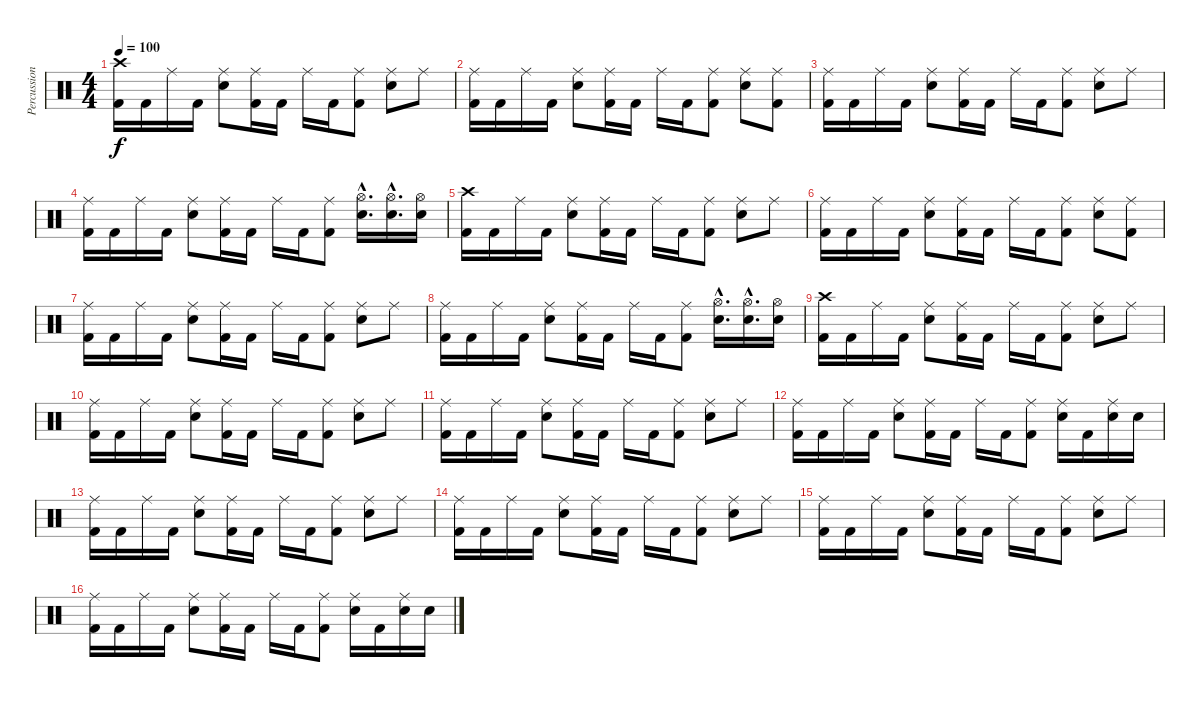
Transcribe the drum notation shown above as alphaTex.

\track ("Percussions" "Percussion") {instrument percussion}
\staff {score}
\articulation defaults
\ts (4 4)
\tempo 100
\clef neutral
\ks c
("Crash high (hit)" "Kick (hit) 2").16{dy f} "Kick (hit) 2".16 "Ride (middle)".16 "Kick (hit) 2".16 ("Ride (middle)" "Electric Snare (hit)").8 ("Ride (middle)" "Kick (hit) 2").16 "Kick (hit) 2".16 "Ride (middle)".16 "Kick (hit) 2".16 ("Ride (middle)" "Kick (hit) 2").8 ("Ride (middle)" "Electric Snare (hit)").8 "Ride (middle)".8 |
("Ride (middle)" "Kick (hit) 2").16 "Kick (hit) 2".16 "Ride (middle)".16 "Kick (hit) 2".16 ("Ride (middle)" "Electric Snare (hit)").8 ("Ride (middle)" "Kick (hit) 2").16 "Kick (hit) 2".16 "Ride (middle)".16 "Kick (hit) 2".16 ("Ride (middle)" "Kick (hit) 2").8 ("Ride (middle)" "Electric Snare (hit)").8 ("Ride (middle)" "Kick (hit) 2").8 |
("Ride (middle)" "Kick (hit) 2").16 "Kick (hit) 2".16 "Ride (middle)".16 "Kick (hit) 2".16 ("Ride (middle)" "Electric Snare (hit)").8 ("Ride (middle)" "Kick (hit) 2").16 "Kick (hit) 2".16 "Ride (middle)".16 "Kick (hit) 2".16 ("Ride (middle)" "Kick (hit) 2").8 ("Ride (middle)" "Electric Snare (hit)").8 "Ride (middle)".8 |
("Ride (middle)" "Kick (hit) 2").16 "Kick (hit) 2".16 "Ride (middle)".16 "Kick (hit) 2".16 ("Ride (middle)" "Electric Snare (hit)").8 ("Ride (middle)" "Kick (hit) 2").16 "Kick (hit) 2".16 "Ride (middle)".16 "Kick (hit) 2".16 ("Ride (middle)" "Kick (hit) 2").8 ("Hi-Hat (open)"{hac} "Electric Snare (hit)"{hac}).16{d} ("Hi-Hat (open)"{hac} "Electric Snare (hit)"{hac}).16{d} ("Hi-Hat (open)" "Electric Snare (hit)").16 |
("Crash high (hit)" "Kick (hit) 2").16 "Kick (hit) 2".16 "Ride (middle)".16 "Kick (hit) 2".16 ("Ride (middle)" "Electric Snare (hit)").8 ("Ride (middle)" "Kick (hit) 2").16 "Kick (hit) 2".16 "Ride (middle)".16 "Kick (hit) 2".16 ("Ride (middle)" "Kick (hit) 2").8 ("Ride (middle)" "Electric Snare (hit)").8 "Ride (middle)".8 |
("Ride (middle)" "Kick (hit) 2").16 "Kick (hit) 2".16 "Ride (middle)".16 "Kick (hit) 2".16 ("Ride (middle)" "Electric Snare (hit)").8 ("Ride (middle)" "Kick (hit) 2").16 "Kick (hit) 2".16 "Ride (middle)".16 "Kick (hit) 2".16 ("Ride (middle)" "Kick (hit) 2").8 ("Ride (middle)" "Electric Snare (hit)").8 ("Ride (middle)" "Kick (hit) 2").8 |
("Ride (middle)" "Kick (hit) 2").16 "Kick (hit) 2".16 "Ride (middle)".16 "Kick (hit) 2".16 ("Ride (middle)" "Electric Snare (hit)").8 ("Ride (middle)" "Kick (hit) 2").16 "Kick (hit) 2".16 "Ride (middle)".16 "Kick (hit) 2".16 ("Ride (middle)" "Kick (hit) 2").8 ("Ride (middle)" "Electric Snare (hit)").8 "Ride (middle)".8 |
("Ride (middle)" "Kick (hit) 2").16 "Kick (hit) 2".16 "Ride (middle)".16 "Kick (hit) 2".16 ("Ride (middle)" "Electric Snare (hit)").8 ("Ride (middle)" "Kick (hit) 2").16 "Kick (hit) 2".16 "Ride (middle)".16 "Kick (hit) 2".16 ("Ride (middle)" "Kick (hit) 2").8 ("Hi-Hat (open)"{hac} "Electric Snare (hit)"{hac}).16{d} ("Hi-Hat (open)"{hac} "Electric Snare (hit)"{hac}).16{d} ("Hi-Hat (open)" "Electric Snare (hit)").16 |
("Crash high (hit)" "Kick (hit) 2").16 "Kick (hit) 2".16 "Ride (middle)".16 "Kick (hit) 2".16 ("Ride (middle)" "Electric Snare (hit)").8 ("Ride (middle)" "Kick (hit) 2").16 "Kick (hit) 2".16 "Ride (middle)".16 "Kick (hit) 2".16 ("Ride (middle)" "Kick (hit) 2").8 ("Ride (middle)" "Electric Snare (hit)").8 "Ride (middle)".8 |
("Ride (middle)" "Kick (hit) 2").16 "Kick (hit) 2".16 "Ride (middle)".16 "Kick (hit) 2".16 ("Ride (middle)" "Electric Snare (hit)").8 ("Ride (middle)" "Kick (hit) 2").16 "Kick (hit) 2".16 "Ride (middle)".16 "Kick (hit) 2".16 ("Ride (middle)" "Kick (hit) 2").8 ("Ride (middle)" "Electric Snare (hit)").8 "Ride (middle)".8 |
("Ride (middle)" "Kick (hit) 2").16 "Kick (hit) 2".16 "Ride (middle)".16 "Kick (hit) 2".16 ("Ride (middle)" "Electric Snare (hit)").8 ("Ride (middle)" "Kick (hit) 2").16 "Kick (hit) 2".16 "Ride (middle)".16 "Kick (hit) 2".16 ("Ride (middle)" "Kick (hit) 2").8 ("Ride (middle)" "Electric Snare (hit)").8 "Ride (middle)".8 |
("Ride (middle)" "Kick (hit) 2").16 "Kick (hit) 2".16 "Ride (middle)".16 "Kick (hit) 2".16 ("Ride (middle)" "Electric Snare (hit)").8 ("Ride (middle)" "Kick (hit) 2").16 "Kick (hit) 2".16 "Ride (middle)".16 "Kick (hit) 2".16 ("Ride (middle)" "Kick (hit) 2").8 ("Ride (middle)" "Electric Snare (hit)").16 "Kick (hit) 2".16 ("Ride (middle)" "Electric Snare (hit)").16 "Electric Snare (hit)".16 |
("Ride (middle)" "Kick (hit) 2").16 "Kick (hit) 2".16 "Ride (middle)".16 "Kick (hit) 2".16 ("Ride (middle)" "Electric Snare (hit)").8 ("Ride (middle)" "Kick (hit) 2").16 "Kick (hit) 2".16 "Ride (middle)".16 "Kick (hit) 2".16 ("Ride (middle)" "Kick (hit) 2").8 ("Ride (middle)" "Electric Snare (hit)").8 "Ride (middle)".8 |
("Ride (middle)" "Kick (hit) 2").16 "Kick (hit) 2".16 "Ride (middle)".16 "Kick (hit) 2".16 ("Ride (middle)" "Electric Snare (hit)").8 ("Ride (middle)" "Kick (hit) 2").16 "Kick (hit) 2".16 "Ride (middle)".16 "Kick (hit) 2".16 ("Ride (middle)" "Kick (hit) 2").8 ("Ride (middle)" "Electric Snare (hit)").8 "Ride (middle)".8 |
("Ride (middle)" "Kick (hit) 2").16 "Kick (hit) 2".16 "Ride (middle)".16 "Kick (hit) 2".16 ("Ride (middle)" "Electric Snare (hit)").8 ("Ride (middle)" "Kick (hit) 2").16 "Kick (hit) 2".16 "Ride (middle)".16 "Kick (hit) 2".16 ("Ride (middle)" "Kick (hit) 2").8 ("Ride (middle)" "Electric Snare (hit)").8 "Ride (middle)".8 |
("Ride (middle)" "Kick (hit) 2").16 "Kick (hit) 2".16 "Ride (middle)".16 "Kick (hit) 2".16 ("Ride (middle)" "Electric Snare (hit)").8 ("Ride (middle)" "Kick (hit) 2").16 "Kick (hit) 2".16 "Ride (middle)".16 "Kick (hit) 2".16 ("Ride (middle)" "Kick (hit) 2").8 ("Ride (middle)" "Electric Snare (hit)").16 "Kick (hit) 2".16 ("Ride (middle)" "Electric Snare (hit)").16 "Electric Snare (hit)".16
